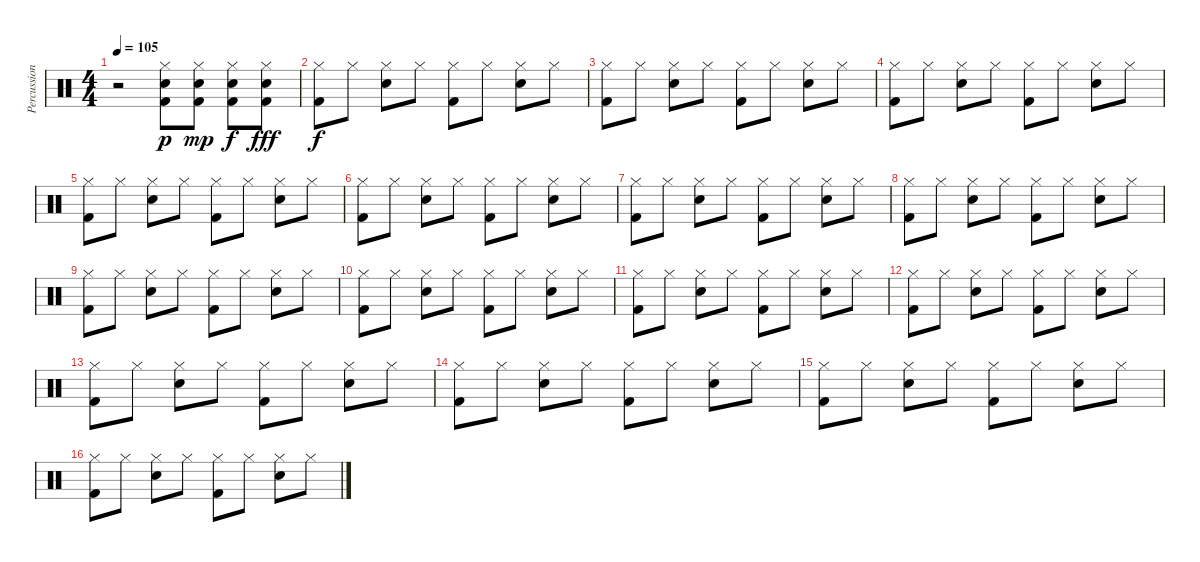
\track ("Percussions" "Percussion") {instrument percussion}
\staff {score}
\articulation defaults
\ts (4 4)
\tempo 105
\clef neutral
\ks c
r.2{dy f} ("Hi-Hat (closed)" "Electric Snare (hit)" "Kick (hit) 2").8{dy p} ("Hi-Hat (closed)" "Electric Snare (hit)" "Kick (hit) 2").8{dy mp} ("Hi-Hat (closed)" "Electric Snare (hit)" "Kick (hit) 2").8{dy f} ("Hi-Hat (closed)" "Electric Snare (hit)" "Kick (hit) 2").8{dy fff} |
("Hi-Hat (closed)" "Kick (hit) 2").8{dy f} "Hi-Hat (closed)".8 ("Hi-Hat (closed)" "Electric Snare (hit)").8 "Hi-Hat (closed)".8 ("Hi-Hat (closed)" "Kick (hit) 2").8 "Hi-Hat (closed)".8 ("Hi-Hat (closed)" "Electric Snare (hit)").8 "Hi-Hat (closed)".8 |
("Hi-Hat (closed)" "Kick (hit) 2").8 "Hi-Hat (closed)".8 ("Hi-Hat (closed)" "Electric Snare (hit)").8 "Hi-Hat (closed)".8 ("Hi-Hat (closed)" "Kick (hit) 2").8 "Hi-Hat (closed)".8 ("Hi-Hat (closed)" "Electric Snare (hit)").8 "Hi-Hat (closed)".8 |
("Hi-Hat (closed)" "Kick (hit) 2").8 "Hi-Hat (closed)".8 ("Hi-Hat (closed)" "Electric Snare (hit)").8 "Hi-Hat (closed)".8 ("Hi-Hat (closed)" "Kick (hit) 2").8 "Hi-Hat (closed)".8 ("Hi-Hat (closed)" "Electric Snare (hit)").8 "Hi-Hat (closed)".8 |
("Hi-Hat (closed)" "Kick (hit) 2").8 "Hi-Hat (closed)".8 ("Hi-Hat (closed)" "Electric Snare (hit)").8 "Hi-Hat (closed)".8 ("Hi-Hat (closed)" "Kick (hit) 2").8 "Hi-Hat (closed)".8 ("Hi-Hat (closed)" "Electric Snare (hit)").8 "Hi-Hat (closed)".8 |
("Hi-Hat (closed)" "Kick (hit) 2").8 "Hi-Hat (closed)".8 ("Hi-Hat (closed)" "Electric Snare (hit)").8 "Hi-Hat (closed)".8 ("Hi-Hat (closed)" "Kick (hit) 2").8 "Hi-Hat (closed)".8 ("Hi-Hat (closed)" "Electric Snare (hit)").8 "Hi-Hat (closed)".8 |
("Hi-Hat (closed)" "Kick (hit) 2").8 "Hi-Hat (closed)".8 ("Hi-Hat (closed)" "Electric Snare (hit)").8 "Hi-Hat (closed)".8 ("Hi-Hat (closed)" "Kick (hit) 2").8 "Hi-Hat (closed)".8 ("Hi-Hat (closed)" "Electric Snare (hit)").8 "Hi-Hat (closed)".8 |
("Hi-Hat (closed)" "Kick (hit) 2").8 "Hi-Hat (closed)".8 ("Hi-Hat (closed)" "Electric Snare (hit)").8 "Hi-Hat (closed)".8 ("Hi-Hat (closed)" "Kick (hit) 2").8 "Hi-Hat (closed)".8 ("Hi-Hat (closed)" "Electric Snare (hit)").8 "Hi-Hat (closed)".8 |
("Hi-Hat (closed)" "Kick (hit) 2").8 "Hi-Hat (closed)".8 ("Hi-Hat (closed)" "Electric Snare (hit)").8 "Hi-Hat (closed)".8 ("Hi-Hat (closed)" "Kick (hit) 2").8 "Hi-Hat (closed)".8 ("Hi-Hat (closed)" "Electric Snare (hit)").8 "Hi-Hat (closed)".8 |
("Hi-Hat (closed)" "Kick (hit) 2").8 "Hi-Hat (closed)".8 ("Hi-Hat (closed)" "Electric Snare (hit)").8 "Hi-Hat (closed)".8 ("Hi-Hat (closed)" "Kick (hit) 2").8 "Hi-Hat (closed)".8 ("Hi-Hat (closed)" "Electric Snare (hit)").8 "Hi-Hat (closed)".8 |
("Hi-Hat (closed)" "Kick (hit) 2").8 "Hi-Hat (closed)".8 ("Hi-Hat (closed)" "Electric Snare (hit)").8 "Hi-Hat (closed)".8 ("Hi-Hat (closed)" "Kick (hit) 2").8 "Hi-Hat (closed)".8 ("Hi-Hat (closed)" "Electric Snare (hit)").8 "Hi-Hat (closed)".8 |
("Hi-Hat (closed)" "Kick (hit) 2").8 "Hi-Hat (closed)".8 ("Hi-Hat (closed)" "Electric Snare (hit)").8 "Hi-Hat (closed)".8 ("Hi-Hat (closed)" "Kick (hit) 2").8 "Hi-Hat (closed)".8 ("Hi-Hat (closed)" "Electric Snare (hit)").8 "Hi-Hat (closed)".8 |
("Hi-Hat (closed)" "Kick (hit) 2").8 "Hi-Hat (closed)".8 ("Hi-Hat (closed)" "Electric Snare (hit)").8 "Hi-Hat (closed)".8 ("Hi-Hat (closed)" "Kick (hit) 2").8 "Hi-Hat (closed)".8 ("Hi-Hat (closed)" "Electric Snare (hit)").8 "Hi-Hat (closed)".8 |
("Hi-Hat (closed)" "Kick (hit) 2").8 "Hi-Hat (closed)".8 ("Hi-Hat (closed)" "Electric Snare (hit)").8 "Hi-Hat (closed)".8 ("Hi-Hat (closed)" "Kick (hit) 2").8 "Hi-Hat (closed)".8 ("Hi-Hat (closed)" "Electric Snare (hit)").8 "Hi-Hat (closed)".8 |
("Hi-Hat (closed)" "Kick (hit) 2").8 "Hi-Hat (closed)".8 ("Hi-Hat (closed)" "Electric Snare (hit)").8 "Hi-Hat (closed)".8 ("Hi-Hat (closed)" "Kick (hit) 2").8 "Hi-Hat (closed)".8 ("Hi-Hat (closed)" "Electric Snare (hit)").8 "Hi-Hat (closed)".8 |
("Hi-Hat (closed)" "Kick (hit) 2").8 "Hi-Hat (closed)".8 ("Hi-Hat (closed)" "Electric Snare (hit)").8 "Hi-Hat (closed)".8 ("Hi-Hat (closed)" "Kick (hit) 2").8 "Hi-Hat (closed)".8 ("Hi-Hat (closed)" "Electric Snare (hit)").8 "Hi-Hat (closed)".8
